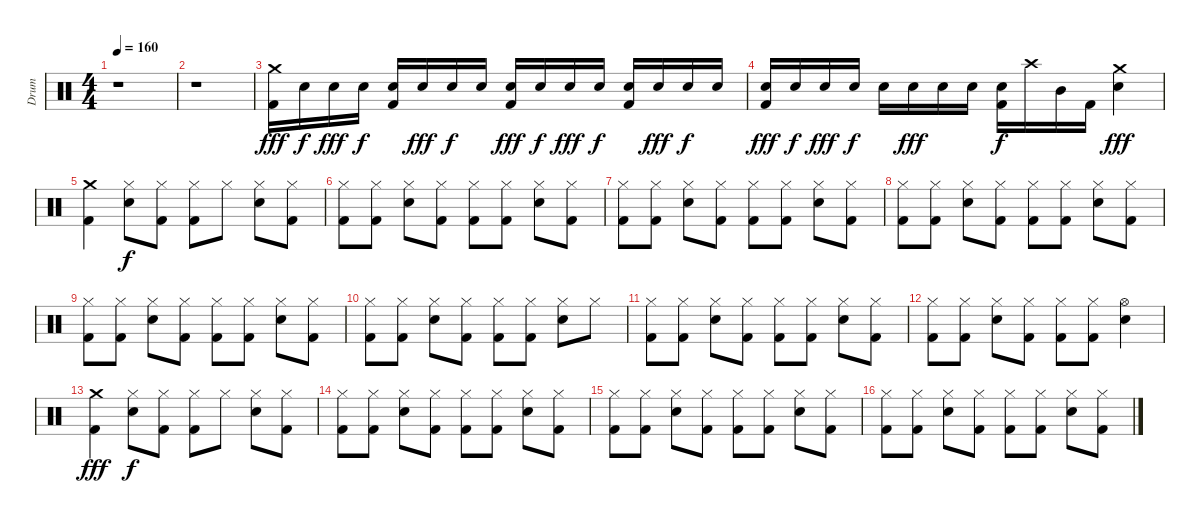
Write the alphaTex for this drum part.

\track ("Drum" "Drum") {instrument percussion}
\staff {score}
\articulation defaults
\ts (4 4)
\tempo 160
\clef neutral
\ks c
r.1{dy fff} |
r.1 |
("Crash medium (hit)" "Kick (hit) 2").16 "Snare (hit) 2".16{dy f} "Snare (hit) 2".16{dy fff} "Snare (hit) 2".16{dy f} ("Snare (hit) 2" "Kick (hit) 2").16 "Snare (hit) 2".16{dy fff} "Snare (hit) 2".16{dy f} "Snare (hit) 2".16 ("Snare (hit) 2" "Kick (hit) 2").16{dy fff} "Snare (hit) 2".16{dy f} "Snare (hit) 2".16{dy fff} "Snare (hit) 2".16{dy f} ("Snare (hit) 2" "Kick (hit) 2").16 "Snare (hit) 2".16{dy fff} "Snare (hit) 2".16{dy f} "Snare (hit) 2".16 |
("Snare (hit) 2" "Kick (hit) 2").16{dy fff} "Snare (hit) 2".16{dy f} "Snare (hit) 2".16{dy fff} "Snare (hit) 2".16{dy f} "Snare (hit) 2".16 "Snare (hit) 2".16{dy fff} "Snare (hit) 2".16 "Snare (hit) 2".16 ("Snare (hit) 2" "Kick (hit) 2").16{dy f} "Crash high (hit)".16 "Mid Tom (hit)".16 "Kick (hit) 2".16 ("Crash medium (hit)" "Snare (hit) 2").4{dy fff} |
("Crash medium (hit)" "Kick (hit) 2").4 ("Hi-Hat (closed)" "Snare (hit) 2").8{dy f} ("Hi-Hat (closed)" "Kick (hit) 2").8 ("Hi-Hat (closed)" "Kick (hit) 2").8 "Hi-Hat (closed)".8 ("Hi-Hat (closed)" "Snare (hit) 2").8 ("Hi-Hat (closed)" "Kick (hit) 2").8 |
("Hi-Hat (closed)" "Kick (hit) 2").8 ("Hi-Hat (closed)" "Kick (hit) 2").8 ("Hi-Hat (closed)" "Snare (hit) 2").8 ("Hi-Hat (closed)" "Kick (hit) 2").8 ("Hi-Hat (closed)" "Kick (hit) 2").8 ("Hi-Hat (closed)" "Kick (hit) 2").8 ("Hi-Hat (closed)" "Snare (hit) 2").8 ("Hi-Hat (closed)" "Kick (hit) 2").8 |
("Hi-Hat (closed)" "Kick (hit) 2").8 ("Hi-Hat (closed)" "Kick (hit) 2").8 ("Hi-Hat (closed)" "Snare (hit) 2").8 ("Hi-Hat (closed)" "Kick (hit) 2").8 ("Hi-Hat (closed)" "Kick (hit) 2").8 ("Hi-Hat (closed)" "Kick (hit) 2").8 ("Hi-Hat (closed)" "Snare (hit) 2").8 ("Hi-Hat (closed)" "Kick (hit) 2").8 |
("Hi-Hat (closed)" "Kick (hit) 2").8 ("Hi-Hat (closed)" "Kick (hit) 2").8 ("Hi-Hat (closed)" "Snare (hit) 2").8 ("Hi-Hat (closed)" "Kick (hit) 2").8 ("Hi-Hat (closed)" "Kick (hit) 2").8 ("Hi-Hat (closed)" "Kick (hit) 2").8 ("Hi-Hat (closed)" "Snare (hit) 2").8 ("Hi-Hat (closed)" "Kick (hit) 2").8 |
("Hi-Hat (closed)" "Kick (hit) 2").8 ("Hi-Hat (closed)" "Kick (hit) 2").8 ("Hi-Hat (closed)" "Snare (hit) 2").8 ("Hi-Hat (closed)" "Kick (hit) 2").8 ("Hi-Hat (closed)" "Kick (hit) 2").8 ("Hi-Hat (closed)" "Kick (hit) 2").8 ("Hi-Hat (closed)" "Snare (hit) 2").8 ("Hi-Hat (closed)" "Kick (hit) 2").8 |
("Hi-Hat (closed)" "Kick (hit) 2").8 ("Hi-Hat (closed)" "Kick (hit) 2").8 ("Hi-Hat (closed)" "Snare (hit) 2").8 ("Hi-Hat (closed)" "Kick (hit) 2").8 ("Hi-Hat (closed)" "Kick (hit) 2").8 ("Hi-Hat (closed)" "Kick (hit) 2").8 ("Hi-Hat (closed)" "Snare (hit) 2").8 "Hi-Hat (closed)".8 |
("Hi-Hat (closed)" "Kick (hit) 2").8 ("Hi-Hat (closed)" "Kick (hit) 2").8 ("Hi-Hat (closed)" "Snare (hit) 2").8 ("Hi-Hat (closed)" "Kick (hit) 2").8 ("Hi-Hat (closed)" "Kick (hit) 2").8 ("Hi-Hat (closed)" "Kick (hit) 2").8 ("Hi-Hat (closed)" "Snare (hit) 2").8 ("Hi-Hat (closed)" "Kick (hit) 2").8 |
("Hi-Hat (closed)" "Kick (hit) 2").8 ("Hi-Hat (closed)" "Kick (hit) 2").8 ("Hi-Hat (closed)" "Snare (hit) 2").8 ("Hi-Hat (closed)" "Kick (hit) 2").8 ("Hi-Hat (closed)" "Kick (hit) 2").8 ("Hi-Hat (closed)" "Kick (hit) 2").8 ("Hi-Hat (open)" "Snare (hit) 2").4 |
("Crash medium (hit)" "Kick (hit) 2").4{dy fff} ("Hi-Hat (closed)" "Snare (hit) 2").8{dy f} ("Hi-Hat (closed)" "Kick (hit) 2").8 ("Hi-Hat (closed)" "Kick (hit) 2").8 "Hi-Hat (closed)".8 ("Hi-Hat (closed)" "Snare (hit) 2").8 ("Hi-Hat (closed)" "Kick (hit) 2").8 |
("Hi-Hat (closed)" "Kick (hit) 2").8 ("Hi-Hat (closed)" "Kick (hit) 2").8 ("Hi-Hat (closed)" "Snare (hit) 2").8 ("Hi-Hat (closed)" "Kick (hit) 2").8 ("Hi-Hat (closed)" "Kick (hit) 2").8 ("Hi-Hat (closed)" "Kick (hit) 2").8 ("Hi-Hat (closed)" "Snare (hit) 2").8 ("Hi-Hat (closed)" "Kick (hit) 2").8 |
("Hi-Hat (closed)" "Kick (hit) 2").8 ("Hi-Hat (closed)" "Kick (hit) 2").8 ("Hi-Hat (closed)" "Snare (hit) 2").8 ("Hi-Hat (closed)" "Kick (hit) 2").8 ("Hi-Hat (closed)" "Kick (hit) 2").8 ("Hi-Hat (closed)" "Kick (hit) 2").8 ("Hi-Hat (closed)" "Snare (hit) 2").8 ("Hi-Hat (closed)" "Kick (hit) 2").8 |
("Hi-Hat (closed)" "Kick (hit) 2").8 ("Hi-Hat (closed)" "Kick (hit) 2").8 ("Hi-Hat (closed)" "Snare (hit) 2").8 ("Hi-Hat (closed)" "Kick (hit) 2").8 ("Hi-Hat (closed)" "Kick (hit) 2").8 ("Hi-Hat (closed)" "Kick (hit) 2").8 ("Hi-Hat (closed)" "Snare (hit) 2").8 ("Hi-Hat (closed)" "Kick (hit) 2").8
